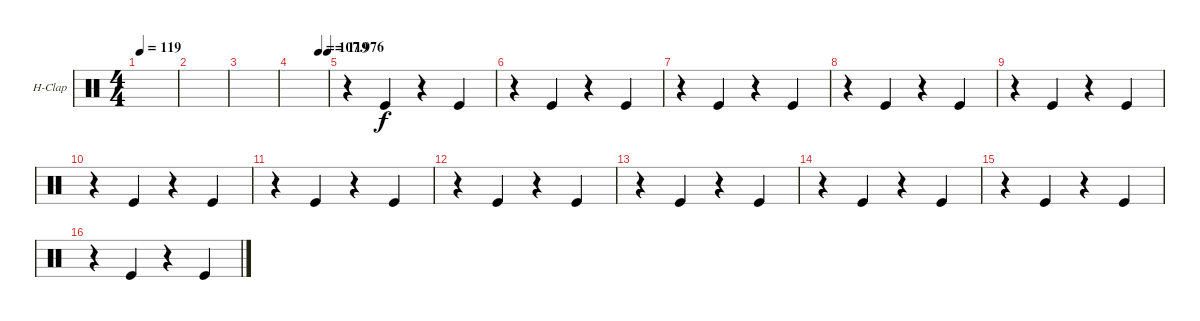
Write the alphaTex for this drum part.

\defaultSystemsLayout 4
\bracketExtendMode groupsimilarinstruments
\firstSystemTrackNameOrientation horizontal
\otherSystemsTrackNameOrientation horizontal
\track ("Hand Clap" "H-Clap") {instrument percussion}
\staff {score}
\articulation defaults
\ts (4 4)
\tempo 119
\clef neutral
\scale
0.472222
\ks c
|
\scale
0.263889 |
\scale
0.263889 |
\tempo (107.976 0.75)
\tempo (119 1)
\scale
0.333333 |
\scale
0.333333 r.4 "Kick (hit)".4 r.4 "Kick (hit)".4 |
\scale
0.333333 r.4 "Kick (hit)".4 r.4 "Kick (hit)".4 |
\scale
0.333333 r.4 "Kick (hit)".4 r.4 "Kick (hit)".4 |
\scale
0.333333 r.4 "Kick (hit)".4 r.4 "Kick (hit)".4 |
\scale
0.333333 r.4 "Kick (hit)".4 r.4 "Kick (hit)".4 |
\scale
0.333333 r.4 "Kick (hit)".4 r.4 "Kick (hit)".4 |
\scale
0.333333 r.4 "Kick (hit)".4 r.4 "Kick (hit)".4 |
\scale
0.333333 r.4 "Kick (hit)".4 r.4 "Kick (hit)".4 |
\scale
0.333333 r.4 "Kick (hit)".4 r.4 "Kick (hit)".4 |
\scale
0.333333 r.4 "Kick (hit)".4 r.4 "Kick (hit)".4 |
\scale
0.333333 r.4 "Kick (hit)".4 r.4 "Kick (hit)".4 |
\scale
0.333333 r.4 "Kick (hit)".4 r.4 "Kick (hit)".4
